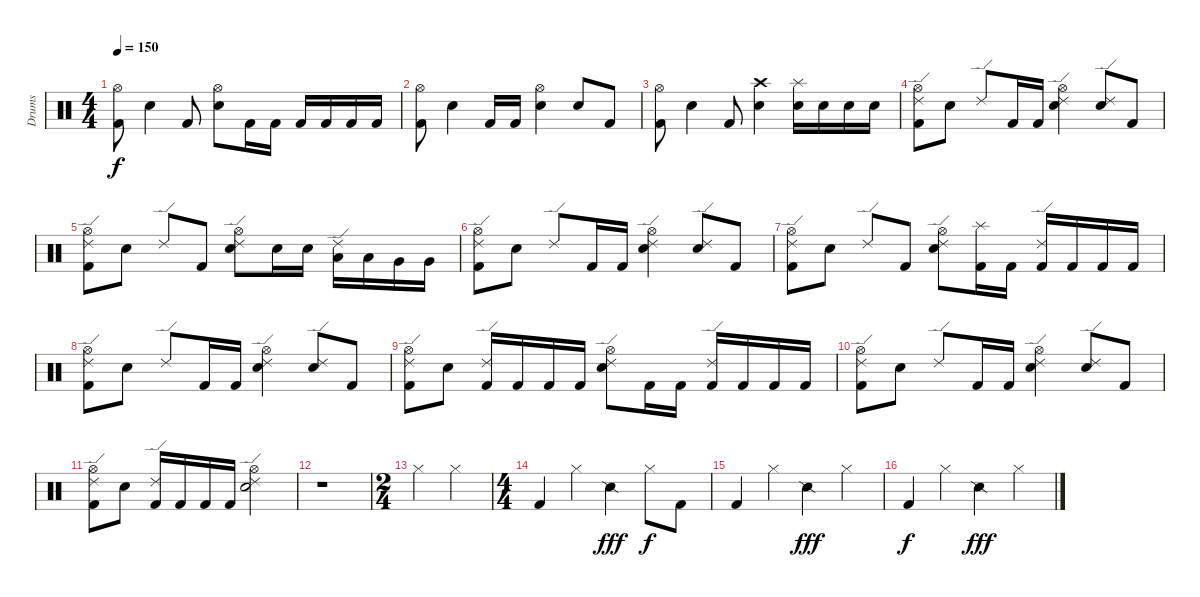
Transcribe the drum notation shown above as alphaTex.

\track ("Drums" "Drums") {instrument percussion}
\staff {score}
\articulation defaults
\ts (4 4)
\tempo 150
\clef neutral
\ks c
("Hi-Hat (open)" "Kick (hit) 2").8{dy f} "Snare (hit) 2".4 "Kick (hit) 2".8 ("Hi-Hat (open)" "Snare (hit) 2").8 "Kick (hit) 2".16 "Kick (hit) 2".16 "Kick (hit) 2".16 "Kick (hit) 2".16 "Kick (hit) 2".16 "Kick (hit) 2".16 |
("Hi-Hat (open)" "Kick (hit) 2").8 "Snare (hit) 2".4 "Kick (hit) 2".16 "Kick (hit) 2".16 ("Hi-Hat (open)" "Snare (hit) 2").4 "Snare (hit) 2".8 "Kick (hit) 2".8 |
("Hi-Hat (open)" "Kick (hit) 2").8 "Snare (hit) 2".4 "Kick (hit) 2".8 ("Crash high (hit)" "Snare (hit) 2").4 ("Splash (hit)" "Electric Snare (hit)").16 "Electric Snare (hit)".16 "Snare (hit) 2".16 "Snare (hit) 2".16 |
("Hi-Hat (open)" "Ride (edge) 2" "Kick (hit) 2").8 "Snare (hit) 2".8 "Ride (edge) 2".8 "Kick (hit) 2".16 "Kick (hit) 2".16 ("Hi-Hat (open)" "Ride (edge) 2" "Snare (hit) 2").4 ("Ride (edge) 2" "Snare (hit) 2").8 "Kick (hit) 2".8 |
("Hi-Hat (open)" "Ride (edge) 2" "Kick (hit) 2").8 "Snare (hit) 2".8 "Ride (edge) 2".8 "Kick (hit) 2".8 ("Hi-Hat (open)" "Ride (edge) 2" "Snare (hit) 2").8 "Electric Snare (hit)".16 "Snare (hit) 2".16 ("Ride (edge) 2" "Low Tom (hit)").16 "Low Tom (hit)".16 "Very Low Tom (hit)".16 "Very Low Tom (hit)".16 |
("Hi-Hat (open)" "Ride (edge) 2" "Kick (hit) 2").8 "Snare (hit) 2".8 "Ride (edge) 2".8 "Kick (hit) 2".16 "Kick (hit) 2".16 ("Hi-Hat (open)" "Ride (edge) 2" "Snare (hit) 2").4 ("Ride (edge) 2" "Snare (hit) 2").8 "Kick (hit) 2".8 |
("Hi-Hat (open)" "Ride (edge) 2" "Kick (hit) 2").8 "Snare (hit) 2".8 "Ride (edge) 2".8 "Kick (hit) 2".8 ("Hi-Hat (open)" "Ride (edge) 2" "Snare (hit) 2").8 ("Splash (hit)" "Kick (hit) 2").16 "Kick (hit) 2".16 ("Ride (edge) 2" "Kick (hit) 2").16 "Kick (hit) 2".16 "Kick (hit) 2".16 "Kick (hit) 2".16 |
("Hi-Hat (open)" "Ride (edge) 2" "Kick (hit) 2").8 "Snare (hit) 2".8 "Ride (edge) 2".8 "Kick (hit) 2".16 "Kick (hit) 2".16 ("Hi-Hat (open)" "Ride (edge) 2" "Snare (hit) 2").4 ("Ride (edge) 2" "Snare (hit) 2").8 "Kick (hit) 2".8 |
("Hi-Hat (open)" "Ride (edge) 2" "Kick (hit) 2").8 "Snare (hit) 2".8 ("Ride (edge) 2" "Kick (hit) 2").16 "Kick (hit) 2".16 "Kick (hit) 2".16 "Kick (hit) 2".16 ("Hi-Hat (open)" "Ride (edge) 2" "Snare (hit) 2").8 "Kick (hit) 2".16 "Kick (hit) 2".16 ("Ride (edge) 2" "Kick (hit) 2").16 "Kick (hit) 2".16 "Kick (hit) 2".16 "Kick (hit) 2".16 |
("Hi-Hat (open)" "Ride (edge) 2" "Kick (hit) 2").8 "Snare (hit) 2".8 "Ride (edge) 2".8 "Kick (hit) 2".16 "Kick (hit) 2".16 ("Hi-Hat (open)" "Ride (edge) 2" "Snare (hit) 2").4 ("Ride (edge) 2" "Snare (hit) 2").8 "Kick (hit) 2".8 |
("Hi-Hat (open)" "Ride (edge) 2" "Kick (hit) 2").8 "Snare (hit) 2".8 ("Ride (edge) 2" "Kick (hit) 2").16 "Kick (hit) 2".16 "Kick (hit) 2".16 "Kick (hit) 2".16 ("Hi-Hat (open)" "Ride (edge) 2" "Snare (hit) 2").2 |
r.1 |
\ts (2 4)
"Hi-Hat (closed)".4 "Hi-Hat (closed)".4 |
\ts (4 4)
"Kick (hit) 2".4 "Hi-Hat (closed)".4 "Snare (side stick) 2".4{dy fff} "Hi-Hat (closed)".8{dy f} "Kick (hit) 2".8 |
"Kick (hit) 2".4 "Hi-Hat (closed)".4 "Snare (side stick) 2".4{dy fff} "Hi-Hat (closed)".4 |
"Kick (hit) 2".4{dy f} "Hi-Hat (closed)".4 "Snare (side stick) 2".4{dy fff} "Hi-Hat (closed)".4
